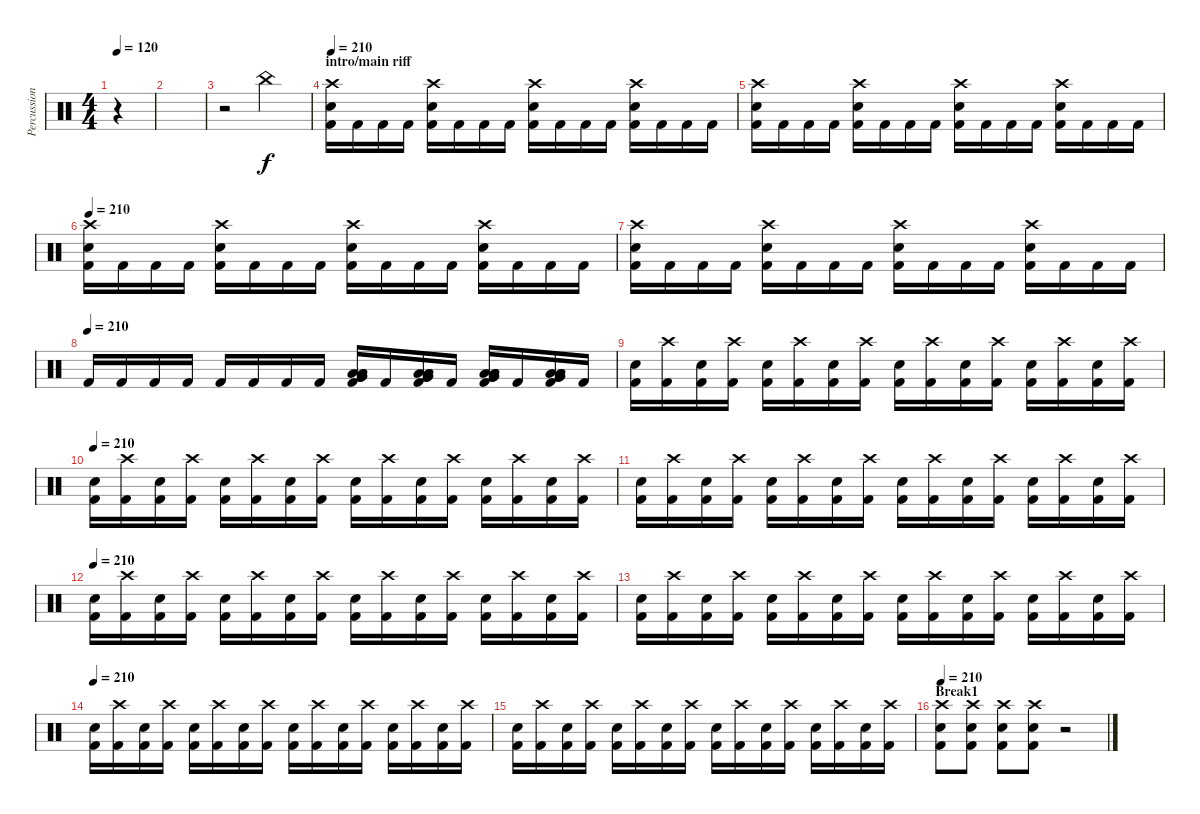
\track ("Percussion" "Percussion") {instrument percussion}
\staff {score}
\articulation defaults
\ts (4 4)
\tempo 120
\clef neutral
\ks c
r.4{dy f} |
|
r.2 "China (hit)".2 |
\section ("" "intro/main riff")
\tempo 210
("Crash high (hit)" "Snare (hit) 2" "Kick (hit) 2").16 "Kick (hit) 2".16 "Kick (hit) 2".16 "Kick (hit) 2".16 ("Crash high (hit)" "Snare (hit) 2" "Kick (hit) 2").16 "Kick (hit) 2".16 "Kick (hit) 2".16 "Kick (hit) 2".16 ("Crash high (hit)" "Snare (hit) 2" "Kick (hit) 2").16 "Kick (hit) 2".16 "Kick (hit) 2".16 "Kick (hit) 2".16 ("Crash high (hit)" "Snare (hit) 2" "Kick (hit) 2").16 "Kick (hit) 2".16 "Kick (hit) 2".16 "Kick (hit) 2".16 |
("Crash high (hit)" "Snare (hit) 2" "Kick (hit) 2").16 "Kick (hit) 2".16 "Kick (hit) 2".16 "Kick (hit) 2".16 ("Crash high (hit)" "Snare (hit) 2" "Kick (hit) 2").16 "Kick (hit) 2".16 "Kick (hit) 2".16 "Kick (hit) 2".16 ("Crash high (hit)" "Snare (hit) 2" "Kick (hit) 2").16 "Kick (hit) 2".16 "Kick (hit) 2".16 "Kick (hit) 2".16 ("Crash high (hit)" "Snare (hit) 2" "Kick (hit) 2").16 "Kick (hit) 2".16 "Kick (hit) 2".16 "Kick (hit) 2".16 |
\tempo 210
("Crash high (hit)" "Snare (hit) 2" "Kick (hit) 2").16 "Kick (hit) 2".16 "Kick (hit) 2".16 "Kick (hit) 2".16 ("Crash high (hit)" "Snare (hit) 2" "Kick (hit) 2").16 "Kick (hit) 2".16 "Kick (hit) 2".16 "Kick (hit) 2".16 ("Crash high (hit)" "Snare (hit) 2" "Kick (hit) 2").16 "Kick (hit) 2".16 "Kick (hit) 2".16 "Kick (hit) 2".16 ("Crash high (hit)" "Snare (hit) 2" "Kick (hit) 2").16 "Kick (hit) 2".16 "Kick (hit) 2".16 "Kick (hit) 2".16 |
("Crash high (hit)" "Snare (hit) 2" "Kick (hit) 2").16 "Kick (hit) 2".16 "Kick (hit) 2".16 "Kick (hit) 2".16 ("Crash high (hit)" "Snare (hit) 2" "Kick (hit) 2").16 "Kick (hit) 2".16 "Kick (hit) 2".16 "Kick (hit) 2".16 ("Crash high (hit)" "Snare (hit) 2" "Kick (hit) 2").16 "Kick (hit) 2".16 "Kick (hit) 2".16 "Kick (hit) 2".16 ("Crash high (hit)" "Snare (hit) 2" "Kick (hit) 2").16 "Kick (hit) 2".16 "Kick (hit) 2".16 "Kick (hit) 2".16 |
\tempo (210)
"Kick (hit) 2".16 "Kick (hit) 2".16 "Kick (hit) 2".16 "Kick (hit) 2".16 "Kick (hit) 2".16 "Kick (hit) 2".16 "Kick (hit) 2".16 "Kick (hit) 2".16 ("Low Floor Tom (hit)" "Low Floor Tom (hit)" "Low Tom (hit)" "Very Low Tom (hit)" "Very Low Tom (hit)" "Kick (hit) 2").16 "Kick (hit) 2".16 ("Low Floor Tom (hit)" "Low Floor Tom (hit)" "Low Tom (hit)" "Very Low Tom (hit)" "Very Low Tom (hit)" "Kick (hit) 2").16 "Kick (hit) 2".16 ("Low Floor Tom (hit)" "Low Floor Tom (hit)" "Low Tom (hit)" "Very Low Tom (hit)" "Very Low Tom (hit)" "Kick (hit) 2").16 "Kick (hit) 2".16 ("Low Floor Tom (hit)" "Low Floor Tom (hit)" "Low Tom (hit)" "Very Low Tom (hit)" "Very Low Tom (hit)" "Kick (hit) 2").16 "Kick (hit) 2".16 |
("Snare (hit) 2" "Kick (hit) 2").16 ("Crash high (hit)" "Kick (hit) 2").16 ("Snare (hit) 2" "Kick (hit) 2").16 ("Crash high (hit)" "Kick (hit) 2").16 ("Snare (hit) 2" "Kick (hit) 2").16 ("Crash high (hit)" "Kick (hit) 2").16 ("Snare (hit) 2" "Kick (hit) 2").16 ("Crash high (hit)" "Kick (hit) 2").16 ("Snare (hit) 2" "Kick (hit) 2").16 ("Crash high (hit)" "Kick (hit) 2").16 ("Snare (hit) 2" "Kick (hit) 2").16 ("Crash high (hit)" "Kick (hit) 2").16 ("Snare (hit) 2" "Kick (hit) 2").16 ("Crash high (hit)" "Kick (hit) 2").16 ("Snare (hit) 2" "Kick (hit) 2").16 ("Crash high (hit)" "Kick (hit) 2").16 |
\tempo 210
("Snare (hit) 2" "Kick (hit) 2").16 ("Crash high (hit)" "Kick (hit) 2").16 ("Snare (hit) 2" "Kick (hit) 2").16 ("Crash high (hit)" "Kick (hit) 2").16 ("Snare (hit) 2" "Kick (hit) 2").16 ("Crash high (hit)" "Kick (hit) 2").16 ("Snare (hit) 2" "Kick (hit) 2").16 ("Crash high (hit)" "Kick (hit) 2").16 ("Snare (hit) 2" "Kick (hit) 2").16 ("Crash high (hit)" "Kick (hit) 2").16 ("Snare (hit) 2" "Kick (hit) 2").16 ("Crash high (hit)" "Kick (hit) 2").16 ("Snare (hit) 2" "Kick (hit) 2").16 ("Crash high (hit)" "Kick (hit) 2").16 ("Snare (hit) 2" "Kick (hit) 2").16 ("Crash high (hit)" "Kick (hit) 2").16 |
("Snare (hit) 2" "Kick (hit) 2").16 ("Crash high (hit)" "Kick (hit) 2").16 ("Snare (hit) 2" "Kick (hit) 2").16 ("Crash high (hit)" "Kick (hit) 2").16 ("Snare (hit) 2" "Kick (hit) 2").16 ("Crash high (hit)" "Kick (hit) 2").16 ("Snare (hit) 2" "Kick (hit) 2").16 ("Crash high (hit)" "Kick (hit) 2").16 ("Snare (hit) 2" "Kick (hit) 2").16 ("Crash high (hit)" "Kick (hit) 2").16 ("Snare (hit) 2" "Kick (hit) 2").16 ("Crash high (hit)" "Kick (hit) 2").16 ("Snare (hit) 2" "Kick (hit) 2").16 ("Crash high (hit)" "Kick (hit) 2").16 ("Snare (hit) 2" "Kick (hit) 2").16 ("Crash high (hit)" "Kick (hit) 2").16 |
\tempo 210
("Snare (hit) 2" "Kick (hit) 2").16 ("Crash high (hit)" "Kick (hit) 2").16 ("Snare (hit) 2" "Kick (hit) 2").16 ("Crash high (hit)" "Kick (hit) 2").16 ("Snare (hit) 2" "Kick (hit) 2").16 ("Crash high (hit)" "Kick (hit) 2").16 ("Snare (hit) 2" "Kick (hit) 2").16 ("Crash high (hit)" "Kick (hit) 2").16 ("Snare (hit) 2" "Kick (hit) 2").16 ("Crash high (hit)" "Kick (hit) 2").16 ("Snare (hit) 2" "Kick (hit) 2").16 ("Crash high (hit)" "Kick (hit) 2").16 ("Snare (hit) 2" "Kick (hit) 2").16 ("Crash high (hit)" "Kick (hit) 2").16 ("Snare (hit) 2" "Kick (hit) 2").16 ("Crash high (hit)" "Kick (hit) 2").16 |
("Snare (hit) 2" "Kick (hit) 2").16 ("Crash high (hit)" "Kick (hit) 2").16 ("Snare (hit) 2" "Kick (hit) 2").16 ("Crash high (hit)" "Kick (hit) 2").16 ("Snare (hit) 2" "Kick (hit) 2").16 ("Crash high (hit)" "Kick (hit) 2").16 ("Snare (hit) 2" "Kick (hit) 2").16 ("Crash high (hit)" "Kick (hit) 2").16 ("Snare (hit) 2" "Kick (hit) 2").16 ("Crash high (hit)" "Kick (hit) 2").16 ("Snare (hit) 2" "Kick (hit) 2").16 ("Crash high (hit)" "Kick (hit) 2").16 ("Snare (hit) 2" "Kick (hit) 2").16 ("Crash high (hit)" "Kick (hit) 2").16 ("Snare (hit) 2" "Kick (hit) 2").16 ("Crash high (hit)" "Kick (hit) 2").16 |
\tempo 210
("Snare (hit) 2" "Kick (hit) 2").16 ("Crash high (hit)" "Kick (hit) 2").16 ("Snare (hit) 2" "Kick (hit) 2").16 ("Crash high (hit)" "Kick (hit) 2").16 ("Snare (hit) 2" "Kick (hit) 2").16 ("Crash high (hit)" "Kick (hit) 2").16 ("Snare (hit) 2" "Kick (hit) 2").16 ("Crash high (hit)" "Kick (hit) 2").16 ("Snare (hit) 2" "Kick (hit) 2").16 ("Crash high (hit)" "Kick (hit) 2").16 ("Snare (hit) 2" "Kick (hit) 2").16 ("Crash high (hit)" "Kick (hit) 2").16 ("Snare (hit) 2" "Kick (hit) 2").16 ("Crash high (hit)" "Kick (hit) 2").16 ("Snare (hit) 2" "Kick (hit) 2").16 ("Crash high (hit)" "Kick (hit) 2").16 |
("Snare (hit) 2" "Kick (hit) 2").16 ("Crash high (hit)" "Kick (hit) 2").16 ("Snare (hit) 2" "Kick (hit) 2").16 ("Crash high (hit)" "Kick (hit) 2").16 ("Snare (hit) 2" "Kick (hit) 2").16 ("Crash high (hit)" "Kick (hit) 2").16 ("Snare (hit) 2" "Kick (hit) 2").16 ("Crash high (hit)" "Kick (hit) 2").16 ("Snare (hit) 2" "Kick (hit) 2").16 ("Crash high (hit)" "Kick (hit) 2").16 ("Snare (hit) 2" "Kick (hit) 2").16 ("Crash high (hit)" "Kick (hit) 2").16 ("Snare (hit) 2" "Kick (hit) 2").16 ("Crash high (hit)" "Kick (hit) 2").16 ("Snare (hit) 2" "Kick (hit) 2").16 ("Crash high (hit)" "Kick (hit) 2").16 |
\section ("" "Break1")
\tempo 210
("Crash high (hit)" "Snare (hit) 2" "Kick (hit) 2").8 ("Crash high (hit)" "Snare (hit) 2" "Kick (hit) 2").8 ("Crash high (hit)" "Snare (hit) 2" "Kick (hit) 2").8 ("Crash high (hit)" "Snare (hit) 2" "Kick (hit) 2").8 r.2
